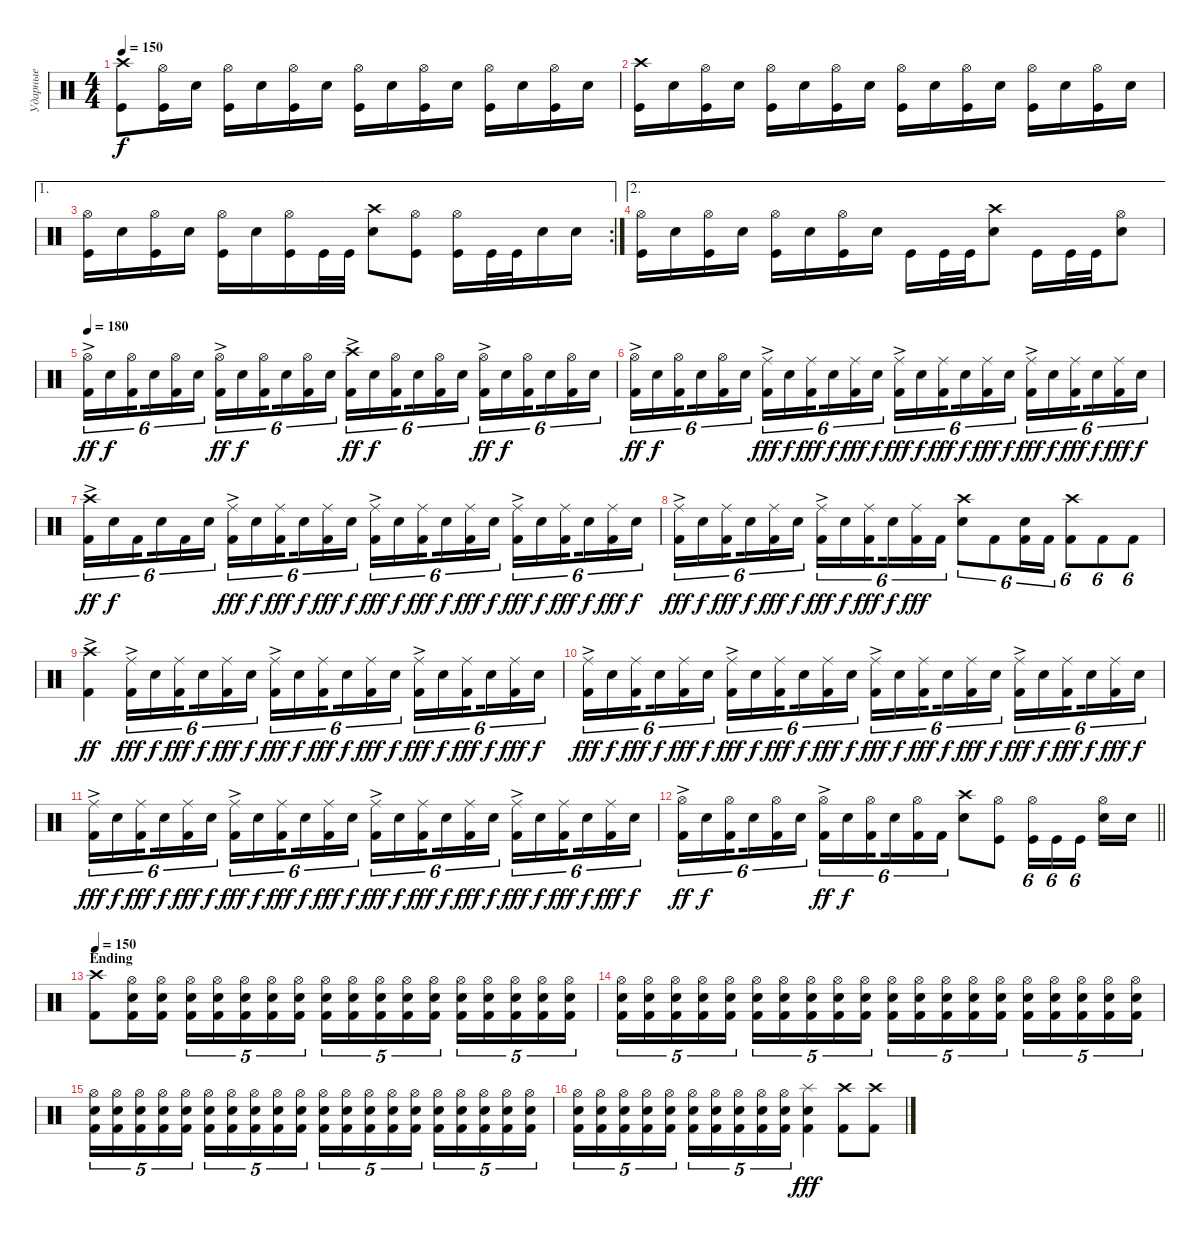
\track ("Ударные" "Ударные") {instrument percussion}
\staff {score}
\articulation defaults
\ts (4 4)
\tempo 150
\clef neutral
\ks c
("Crash high (hit)" "Kick (hit)").8{dy f} ("Hi-Hat (open)" "Kick (hit)").16 "Snare (hit) 2".16 ("Hi-Hat (open)" "Kick (hit)").16 "Snare (hit) 2".16 ("Hi-Hat (open)" "Kick (hit)").16 "Snare (hit) 2".16 ("Hi-Hat (open)" "Kick (hit)").16 "Snare (hit) 2".16 ("Hi-Hat (open)" "Kick (hit)").16 "Snare (hit) 2".16 ("Hi-Hat (open)" "Kick (hit)").16 "Snare (hit) 2".16 ("Hi-Hat (open)" "Kick (hit)").16 "Snare (hit) 2".16 |
("Crash high (hit)" "Kick (hit)").16 "Snare (hit) 2".16 ("Hi-Hat (open)" "Kick (hit)").16 "Snare (hit) 2".16 ("Hi-Hat (open)" "Kick (hit)").16 "Snare (hit) 2".16 ("Hi-Hat (open)" "Kick (hit)").16 "Snare (hit) 2".16 ("Hi-Hat (open)" "Kick (hit)").16 "Snare (hit) 2".16 ("Hi-Hat (open)" "Kick (hit)").16 "Snare (hit) 2".16 ("Hi-Hat (open)" "Kick (hit)").16 "Snare (hit) 2".16 ("Hi-Hat (open)" "Kick (hit)").16 "Snare (hit) 2".16 |
\ae 1
\rc 2
("Hi-Hat (open)" "Kick (hit)").16 "Snare (hit) 2".16 ("Hi-Hat (open)" "Kick (hit)").16 "Snare (hit) 2".16 ("Hi-Hat (open)" "Kick (hit)").16 "Snare (hit) 2".16 ("Hi-Hat (open)" "Kick (hit)").16 "Kick (hit)".32 "Kick (hit)".32 ("Crash high (hit)" "Snare (hit) 2").8 ("Hi-Hat (open)" "Kick (hit)").8 ("Hi-Hat (open)" "Kick (hit)").16 "Kick (hit)".32 "Kick (hit)".32 "Snare (hit) 2".16 "Snare (hit) 2".16 |
\ae 2
("Hi-Hat (open)" "Kick (hit)").16 "Snare (hit) 2".16 ("Hi-Hat (open)" "Kick (hit)").16 "Snare (hit) 2".16 ("Hi-Hat (open)" "Kick (hit)").16 "Snare (hit) 2".16 ("Hi-Hat (open)" "Kick (hit)").16 "Snare (hit) 2".16 "Kick (hit)".16 "Kick (hit)".32 "Kick (hit)".32 ("Crash high (hit)" "Snare (hit) 2").8 "Kick (hit)".16 "Kick (hit)".32 "Kick (hit)".32 ("Hi-Hat (open)" "Snare (hit) 2").8 |
\tempo 180
("Hi-Hat (open)"{ac} "Kick (hit) 2").16{tu (6 4) dy ff} "Snare (hit) 2".16{tu (6 4) dy f} ("Hi-Hat (open)" "Kick (hit) 2").16{tu (6 4) beam splitsecondary} "Snare (hit) 2".16{tu (6 4)} ("Hi-Hat (open)" "Kick (hit) 2").16{tu (6 4)} "Snare (hit) 2".16{tu (6 4)} ("Hi-Hat (open)"{ac} "Kick (hit) 2").16{tu (6 4) dy ff} "Snare (hit) 2".16{tu (6 4) dy f} ("Hi-Hat (open)" "Kick (hit) 2").16{tu (6 4) beam splitsecondary} "Snare (hit) 2".16{tu (6 4)} ("Hi-Hat (open)" "Kick (hit) 2").16{tu (6 4)} "Snare (hit) 2".16{tu (6 4)} ("Crash high (hit)"{ac} "Kick (hit) 2").16{tu (6 4) dy ff} "Snare (hit) 2".16{tu (6 4) dy f} ("Hi-Hat (open)" "Kick (hit) 2").16{tu (6 4) beam splitsecondary} "Snare (hit) 2".16{tu (6 4)} ("Hi-Hat (open)" "Kick (hit) 2").16{tu (6 4)} "Snare (hit) 2".16{tu (6 4)} ("Hi-Hat (open)"{ac} "Kick (hit) 2").16{tu (6 4) dy ff} "Snare (hit) 2".16{tu (6 4) dy f} ("Hi-Hat (open)" "Kick (hit) 2").16{tu (6 4) beam splitsecondary} "Snare (hit) 2".16{tu (6 4)} ("Hi-Hat (open)" "Kick (hit) 2").16{tu (6 4)} "Snare (hit) 2".16{tu (6 4)} |
("Hi-Hat (open)"{ac} "Kick (hit) 2").16{tu (6 4) dy ff} "Snare (hit) 2".16{tu (6 4) dy f} ("Hi-Hat (open)" "Kick (hit) 2").16{tu (6 4) beam splitsecondary} "Snare (hit) 2".16{tu (6 4)} ("Hi-Hat (open)" "Kick (hit) 2").16{tu (6 4)} "Snare (hit) 2".16{tu (6 4)} ("Ride (middle)"{ac} "Kick (hit) 2").16{tu (6 4) dy fff} "Snare (hit) 2".16{tu (6 4) dy f} ("Ride (middle)" "Kick (hit) 2").16{tu (6 4) dy fff beam splitsecondary} "Snare (hit) 2".16{tu (6 4) dy f} ("Ride (middle)" "Kick (hit) 2").16{tu (6 4) dy fff} "Snare (hit) 2".16{tu (6 4) dy f} ("Ride (middle)"{ac} "Kick (hit) 2").16{tu (6 4) dy fff} "Snare (hit) 2".16{tu (6 4) dy f} ("Ride (middle)" "Kick (hit) 2").16{tu (6 4) dy fff beam splitsecondary} "Snare (hit) 2".16{tu (6 4) dy f} ("Ride (middle)" "Kick (hit) 2").16{tu (6 4) dy fff} "Snare (hit) 2".16{tu (6 4) dy f} ("Ride (middle)"{ac} "Kick (hit) 2").16{tu (6 4) dy fff} "Snare (hit) 2".16{tu (6 4) dy f} ("Ride (middle)" "Kick (hit) 2").16{tu (6 4) dy fff beam splitsecondary} "Snare (hit) 2".16{tu (6 4) dy f} ("Ride (middle)" "Kick (hit) 2").16{tu (6 4) dy fff} "Snare (hit) 2".16{tu (6 4) dy f} |
("Crash high (hit)"{ac} "Kick (hit) 2").16{tu (6 4) dy ff} "Snare (hit) 2".16{tu (6 4) dy f} "Kick (hit) 2".16{tu (6 4) beam splitsecondary} "Snare (hit) 2".16{tu (6 4)} "Kick (hit) 2".16{tu (6 4)} "Snare (hit) 2".16{tu (6 4)} ("Ride (middle)"{ac} "Kick (hit) 2").16{tu (6 4) dy fff} "Snare (hit) 2".16{tu (6 4) dy f} ("Ride (middle)" "Kick (hit) 2").16{tu (6 4) dy fff beam splitsecondary} "Snare (hit) 2".16{tu (6 4) dy f} ("Ride (middle)" "Kick (hit) 2").16{tu (6 4) dy fff} "Snare (hit) 2".16{tu (6 4) dy f} ("Ride (middle)"{ac} "Kick (hit) 2").16{tu (6 4) dy fff} "Snare (hit) 2".16{tu (6 4) dy f} ("Ride (middle)" "Kick (hit) 2").16{tu (6 4) dy fff beam splitsecondary} "Snare (hit) 2".16{tu (6 4) dy f} ("Ride (middle)" "Kick (hit) 2").16{tu (6 4) dy fff} "Snare (hit) 2".16{tu (6 4) dy f} ("Ride (middle)"{ac} "Kick (hit) 2").16{tu (6 4) dy fff} "Snare (hit) 2".16{tu (6 4) dy f} ("Ride (middle)" "Kick (hit) 2").16{tu (6 4) dy fff beam splitsecondary} "Snare (hit) 2".16{tu (6 4) dy f} ("Ride (middle)" "Kick (hit) 2").16{tu (6 4) dy fff} "Snare (hit) 2".16{tu (6 4) dy f} |
("Ride (middle)"{ac} "Kick (hit) 2").16{tu (6 4) dy fff} "Snare (hit) 2".16{tu (6 4) dy f} ("Ride (middle)" "Kick (hit) 2").16{tu (6 4) dy fff beam splitsecondary} "Snare (hit) 2".16{tu (6 4) dy f} ("Ride (middle)" "Kick (hit) 2").16{tu (6 4) dy fff} "Snare (hit) 2".16{tu (6 4) dy f} ("Ride (middle)"{ac} "Kick (hit) 2").16{tu (6 4) dy fff} "Snare (hit) 2".16{tu (6 4) dy f} ("Ride (middle)" "Kick (hit) 2").16{tu (6 4) dy fff beam splitsecondary} "Snare (hit) 2".16{tu (6 4) dy f} ("Ride (middle)" "Kick (hit) 2").16{tu (6 4) dy fff} "Kick (hit) 2".16{tu (6 4)} ("Crash high (hit)" "Snare (hit) 2").8{tu (6 4)} "Kick (hit) 2".8{tu (6 4)} ("Snare (hit) 2" "Kick (hit) 2").16{tu (6 4)} "Kick (hit) 2".16{tu (6 4)} ("Crash high (hit)" "Kick (hit) 2").8{tu (6 4)} "Kick (hit) 2".8{tu (6 4)} "Kick (hit) 2".8{tu (6 4)} |
("Crash high (hit)"{ac} "Kick (hit) 2").4{dy ff} ("Ride (middle)"{ac} "Kick (hit) 2").16{tu (6 4) dy fff} "Snare (hit) 2".16{tu (6 4) dy f} ("Ride (middle)" "Kick (hit) 2").16{tu (6 4) dy fff beam splitsecondary} "Snare (hit) 2".16{tu (6 4) dy f} ("Ride (middle)" "Kick (hit) 2").16{tu (6 4) dy fff} "Snare (hit) 2".16{tu (6 4) dy f} ("Ride (middle)"{ac} "Kick (hit) 2").16{tu (6 4) dy fff} "Snare (hit) 2".16{tu (6 4) dy f} ("Ride (middle)" "Kick (hit) 2").16{tu (6 4) dy fff beam splitsecondary} "Snare (hit) 2".16{tu (6 4) dy f} ("Ride (middle)" "Kick (hit) 2").16{tu (6 4) dy fff} "Snare (hit) 2".16{tu (6 4) dy f} ("Ride (middle)"{ac} "Kick (hit) 2").16{tu (6 4) dy fff} "Snare (hit) 2".16{tu (6 4) dy f} ("Ride (middle)" "Kick (hit) 2").16{tu (6 4) dy fff beam splitsecondary} "Snare (hit) 2".16{tu (6 4) dy f} ("Ride (middle)" "Kick (hit) 2").16{tu (6 4) dy fff} "Snare (hit) 2".16{tu (6 4) dy f} |
("Ride (middle)"{ac} "Kick (hit) 2").16{tu (6 4) dy fff} "Snare (hit) 2".16{tu (6 4) dy f} ("Ride (middle)" "Kick (hit) 2").16{tu (6 4) dy fff beam splitsecondary} "Snare (hit) 2".16{tu (6 4) dy f} ("Ride (middle)" "Kick (hit) 2").16{tu (6 4) dy fff} "Snare (hit) 2".16{tu (6 4) dy f} ("Ride (middle)"{ac} "Kick (hit) 2").16{tu (6 4) dy fff} "Snare (hit) 2".16{tu (6 4) dy f} ("Ride (middle)" "Kick (hit) 2").16{tu (6 4) dy fff beam splitsecondary} "Snare (hit) 2".16{tu (6 4) dy f} ("Ride (middle)" "Kick (hit) 2").16{tu (6 4) dy fff} "Snare (hit) 2".16{tu (6 4) dy f} ("Ride (middle)"{ac} "Kick (hit) 2").16{tu (6 4) dy fff} "Snare (hit) 2".16{tu (6 4) dy f} ("Ride (middle)" "Kick (hit) 2").16{tu (6 4) dy fff beam splitsecondary} "Snare (hit) 2".16{tu (6 4) dy f} ("Ride (middle)" "Kick (hit) 2").16{tu (6 4) dy fff} "Snare (hit) 2".16{tu (6 4) dy f} ("Ride (middle)"{ac} "Kick (hit) 2").16{tu (6 4) dy fff} "Snare (hit) 2".16{tu (6 4) dy f} ("Ride (middle)" "Kick (hit) 2").16{tu (6 4) dy fff beam splitsecondary} "Snare (hit) 2".16{tu (6 4) dy f} ("Ride (middle)" "Kick (hit) 2").16{tu (6 4) dy fff} "Snare (hit) 2".16{tu (6 4) dy f} |
("Ride (middle)"{ac} "Kick (hit) 2").16{tu (6 4) dy fff} "Snare (hit) 2".16{tu (6 4) dy f} ("Ride (middle)" "Kick (hit) 2").16{tu (6 4) dy fff beam splitsecondary} "Snare (hit) 2".16{tu (6 4) dy f} ("Ride (middle)" "Kick (hit) 2").16{tu (6 4) dy fff} "Snare (hit) 2".16{tu (6 4) dy f} ("Ride (middle)"{ac} "Kick (hit) 2").16{tu (6 4) dy fff} "Snare (hit) 2".16{tu (6 4) dy f} ("Ride (middle)" "Kick (hit) 2").16{tu (6 4) dy fff beam splitsecondary} "Snare (hit) 2".16{tu (6 4) dy f} ("Ride (middle)" "Kick (hit) 2").16{tu (6 4) dy fff} "Snare (hit) 2".16{tu (6 4) dy f} ("Ride (middle)"{ac} "Kick (hit) 2").16{tu (6 4) dy fff} "Snare (hit) 2".16{tu (6 4) dy f} ("Ride (middle)" "Kick (hit) 2").16{tu (6 4) dy fff beam splitsecondary} "Snare (hit) 2".16{tu (6 4) dy f} ("Ride (middle)" "Kick (hit) 2").16{tu (6 4) dy fff} "Snare (hit) 2".16{tu (6 4) dy f} ("Ride (middle)"{ac} "Kick (hit) 2").16{tu (6 4) dy fff} "Snare (hit) 2".16{tu (6 4) dy f} ("Ride (middle)" "Kick (hit) 2").16{tu (6 4) dy fff beam splitsecondary} "Snare (hit) 2".16{tu (6 4) dy f} ("Ride (middle)" "Kick (hit) 2").16{tu (6 4) dy fff} "Snare (hit) 2".16{tu (6 4) dy f} |
\barLineRight lightlight
("Hi-Hat (open)"{ac} "Kick (hit) 2").16{tu (6 4) dy ff} "Snare (hit) 2".16{tu (6 4) dy f} ("Hi-Hat (open)" "Kick (hit) 2").16{tu (6 4) beam splitsecondary} "Snare (hit) 2".16{tu (6 4)} ("Hi-Hat (open)" "Kick (hit) 2").16{tu (6 4)} "Snare (hit) 2".16{tu (6 4)} ("Hi-Hat (open)"{ac} "Kick (hit) 2").16{tu (6 4) dy ff} "Snare (hit) 2".16{tu (6 4) dy f} ("Hi-Hat (open)" "Kick (hit) 2").16{tu (6 4) beam splitsecondary} "Snare (hit) 2".16{tu (6 4)} ("Hi-Hat (open)" "Kick (hit) 2").16{tu (6 4)} "Kick (hit) 2".16{tu (6 4)} ("Crash high (hit)" "Snare (hit) 2").8 ("Hi-Hat (open)" "Kick (hit)").8 ("Hi-Hat (open)" "Kick (hit)").16{tu (6 4)} "Kick (hit)".16{tu (6 4)} "Kick (hit)".16{tu (6 4) beam splitsecondary} ("Hi-Hat (open)" "Snare (hit) 2").16 "Snare (hit) 2".16 |
\section ("" "Ending")
\tempo 150
("Crash high (hit)" "Kick (hit) 2").8 ("Snare (hit) 2" "Hi-Hat (open)" "Kick (hit) 2").16 ("Snare (hit) 2" "Hi-Hat (open)" "Kick (hit) 2").16 ("Snare (hit) 2" "Hi-Hat (open)" "Kick (hit) 2").16{tu (5 4)} ("Snare (hit) 2" "Hi-Hat (open)" "Kick (hit) 2").16{tu (5 4)} ("Snare (hit) 2" "Hi-Hat (open)" "Kick (hit) 2").16{tu (5 4)} ("Snare (hit) 2" "Hi-Hat (open)" "Kick (hit) 2").16{tu (5 4)} ("Snare (hit) 2" "Hi-Hat (open)" "Kick (hit) 2").16{tu (5 4)} ("Snare (hit) 2" "Hi-Hat (open)" "Kick (hit) 2").16{tu (5 4)} ("Snare (hit) 2" "Hi-Hat (open)" "Kick (hit) 2").16{tu (5 4)} ("Snare (hit) 2" "Hi-Hat (open)" "Kick (hit) 2").16{tu (5 4)} ("Snare (hit) 2" "Hi-Hat (open)" "Kick (hit) 2").16{tu (5 4)} ("Snare (hit) 2" "Hi-Hat (open)" "Kick (hit) 2").16{tu (5 4)} ("Snare (hit) 2" "Hi-Hat (open)" "Kick (hit) 2").16{tu (5 4)} ("Snare (hit) 2" "Hi-Hat (open)" "Kick (hit) 2").16{tu (5 4)} ("Snare (hit) 2" "Hi-Hat (open)" "Kick (hit) 2").16{tu (5 4)} ("Snare (hit) 2" "Hi-Hat (open)" "Kick (hit) 2").16{tu (5 4)} ("Snare (hit) 2" "Hi-Hat (open)" "Kick (hit) 2").16{tu (5 4)} |
("Snare (hit) 2" "Hi-Hat (open)" "Kick (hit) 2").16{tu (5 4)} ("Snare (hit) 2" "Hi-Hat (open)" "Kick (hit) 2").16{tu (5 4)} ("Snare (hit) 2" "Hi-Hat (open)" "Kick (hit) 2").16{tu (5 4)} ("Snare (hit) 2" "Hi-Hat (open)" "Kick (hit) 2").16{tu (5 4)} ("Snare (hit) 2" "Hi-Hat (open)" "Kick (hit) 2").16{tu (5 4)} ("Snare (hit) 2" "Hi-Hat (open)" "Kick (hit) 2").16{tu (5 4)} ("Snare (hit) 2" "Hi-Hat (open)" "Kick (hit) 2").16{tu (5 4)} ("Snare (hit) 2" "Hi-Hat (open)" "Kick (hit) 2").16{tu (5 4)} ("Snare (hit) 2" "Hi-Hat (open)" "Kick (hit) 2").16{tu (5 4)} ("Snare (hit) 2" "Hi-Hat (open)" "Kick (hit) 2").16{tu (5 4)} ("Snare (hit) 2" "Hi-Hat (open)" "Kick (hit) 2").16{tu (5 4)} ("Snare (hit) 2" "Hi-Hat (open)" "Kick (hit) 2").16{tu (5 4)} ("Snare (hit) 2" "Hi-Hat (open)" "Kick (hit) 2").16{tu (5 4)} ("Snare (hit) 2" "Hi-Hat (open)" "Kick (hit) 2").16{tu (5 4)} ("Snare (hit) 2" "Hi-Hat (open)" "Kick (hit) 2").16{tu (5 4)} ("Snare (hit) 2" "Hi-Hat (open)" "Kick (hit) 2").16{tu (5 4)} ("Snare (hit) 2" "Hi-Hat (open)" "Kick (hit) 2").16{tu (5 4)} ("Snare (hit) 2" "Hi-Hat (open)" "Kick (hit) 2").16{tu (5 4)} ("Snare (hit) 2" "Hi-Hat (open)" "Kick (hit) 2").16{tu (5 4)} ("Snare (hit) 2" "Hi-Hat (open)" "Kick (hit) 2").16{tu (5 4)} |
("Snare (hit) 2" "Hi-Hat (open)" "Kick (hit) 2").16{tu (5 4)} ("Snare (hit) 2" "Hi-Hat (open)" "Kick (hit) 2").16{tu (5 4)} ("Snare (hit) 2" "Hi-Hat (open)" "Kick (hit) 2").16{tu (5 4)} ("Snare (hit) 2" "Hi-Hat (open)" "Kick (hit) 2").16{tu (5 4)} ("Snare (hit) 2" "Hi-Hat (open)" "Kick (hit) 2").16{tu (5 4)} ("Snare (hit) 2" "Hi-Hat (open)" "Kick (hit) 2").16{tu (5 4)} ("Snare (hit) 2" "Hi-Hat (open)" "Kick (hit) 2").16{tu (5 4)} ("Snare (hit) 2" "Hi-Hat (open)" "Kick (hit) 2").16{tu (5 4)} ("Snare (hit) 2" "Hi-Hat (open)" "Kick (hit) 2").16{tu (5 4)} ("Snare (hit) 2" "Hi-Hat (open)" "Kick (hit) 2").16{tu (5 4)} ("Snare (hit) 2" "Hi-Hat (open)" "Kick (hit) 2").16{tu (5 4)} ("Snare (hit) 2" "Hi-Hat (open)" "Kick (hit) 2").16{tu (5 4)} ("Snare (hit) 2" "Hi-Hat (open)" "Kick (hit) 2").16{tu (5 4)} ("Snare (hit) 2" "Hi-Hat (open)" "Kick (hit) 2").16{tu (5 4)} ("Snare (hit) 2" "Hi-Hat (open)" "Kick (hit) 2").16{tu (5 4)} ("Snare (hit) 2" "Hi-Hat (open)" "Kick (hit) 2").16{tu (5 4)} ("Snare (hit) 2" "Hi-Hat (open)" "Kick (hit) 2").16{tu (5 4)} ("Snare (hit) 2" "Hi-Hat (open)" "Kick (hit) 2").16{tu (5 4)} ("Snare (hit) 2" "Hi-Hat (open)" "Kick (hit) 2").16{tu (5 4)} ("Snare (hit) 2" "Hi-Hat (open)" "Kick (hit) 2").16{tu (5 4)} |
("Snare (hit) 2" "Hi-Hat (open)" "Kick (hit) 2").16{tu (5 4)} ("Snare (hit) 2" "Hi-Hat (open)" "Kick (hit) 2").16{tu (5 4)} ("Snare (hit) 2" "Hi-Hat (open)" "Kick (hit) 2").16{tu (5 4)} ("Snare (hit) 2" "Hi-Hat (open)" "Kick (hit) 2").16{tu (5 4)} ("Snare (hit) 2" "Hi-Hat (open)" "Kick (hit) 2").16{tu (5 4)} ("Snare (hit) 2" "Hi-Hat (open)" "Kick (hit) 2").16{tu (5 4)} ("Snare (hit) 2" "Hi-Hat (open)" "Kick (hit) 2").16{tu (5 4)} ("Snare (hit) 2" "Hi-Hat (open)" "Kick (hit) 2").16{tu (5 4)} ("Snare (hit) 2" "Hi-Hat (open)" "Kick (hit) 2").16{tu (5 4)} ("Snare (hit) 2" "Hi-Hat (open)" "Kick (hit) 2").16{tu (5 4)} ("Snare (hit) 2" "Splash (hit)" "Kick (hit) 2").4{dy fff} ("Crash high (hit)" "Kick (hit) 2").8 ("Crash high (hit)" "Kick (hit) 2").8
